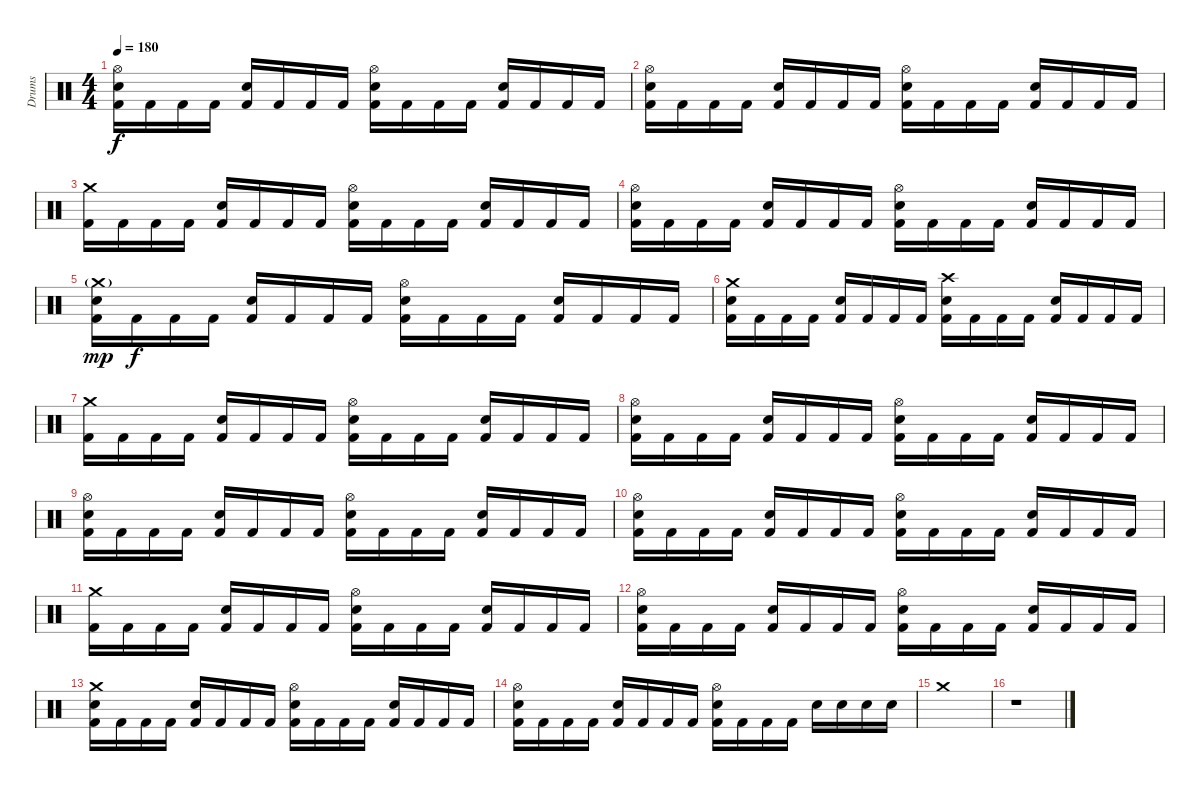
\track ("Drums" "Drums") {instrument percussion}
\staff {score}
\articulation defaults
\ts (4 4)
\tempo 180
\clef neutral
\ks c
("Hi-Hat (open)" "Electric Snare (hit)" "Kick (hit) 2").16{dy f} "Kick (hit) 2".16 "Kick (hit) 2".16 "Kick (hit) 2".16 ("Electric Snare (hit)" "Kick (hit) 2").16 "Kick (hit) 2".16 "Kick (hit) 2".16 "Kick (hit) 2".16 ("Hi-Hat (open)" "Electric Snare (hit)" "Kick (hit) 2").16 "Kick (hit) 2".16 "Kick (hit) 2".16 "Kick (hit) 2".16 ("Electric Snare (hit)" "Kick (hit) 2").16 "Kick (hit) 2".16 "Kick (hit) 2".16 "Kick (hit) 2".16 |
("Hi-Hat (open)" "Electric Snare (hit)" "Kick (hit) 2").16 "Kick (hit) 2".16 "Kick (hit) 2".16 "Kick (hit) 2".16 ("Electric Snare (hit)" "Kick (hit) 2").16 "Kick (hit) 2".16 "Kick (hit) 2".16 "Kick (hit) 2".16 ("Hi-Hat (open)" "Electric Snare (hit)" "Kick (hit) 2").16 "Kick (hit) 2".16 "Kick (hit) 2".16 "Kick (hit) 2".16 ("Electric Snare (hit)" "Kick (hit) 2").16 "Kick (hit) 2".16 "Kick (hit) 2".16 "Kick (hit) 2".16 |
("Crash medium (hit)" "Kick (hit) 2").16 "Kick (hit) 2".16 "Kick (hit) 2".16 "Kick (hit) 2".16 ("Electric Snare (hit)" "Kick (hit) 2").16 "Kick (hit) 2".16 "Kick (hit) 2".16 "Kick (hit) 2".16 ("Hi-Hat (open)" "Electric Snare (hit)" "Kick (hit) 2").16 "Kick (hit) 2".16 "Kick (hit) 2".16 "Kick (hit) 2".16 ("Electric Snare (hit)" "Kick (hit) 2").16 "Kick (hit) 2".16 "Kick (hit) 2".16 "Kick (hit) 2".16 |
("Hi-Hat (open)" "Electric Snare (hit)" "Kick (hit) 2").16 "Kick (hit) 2".16 "Kick (hit) 2".16 "Kick (hit) 2".16 ("Electric Snare (hit)" "Kick (hit) 2").16 "Kick (hit) 2".16 "Kick (hit) 2".16 "Kick (hit) 2".16 ("Hi-Hat (open)" "Electric Snare (hit)" "Kick (hit) 2").16 "Kick (hit) 2".16 "Kick (hit) 2".16 "Kick (hit) 2".16 ("Electric Snare (hit)" "Kick (hit) 2").16 "Kick (hit) 2".16 "Kick (hit) 2".16 "Kick (hit) 2".16 |
("Crash medium (hit)"{g} "Electric Snare (hit)" "Kick (hit) 2").16{dy mp} "Kick (hit) 2".16{dy f} "Kick (hit) 2".16 "Kick (hit) 2".16 ("Electric Snare (hit)" "Kick (hit) 2").16 "Kick (hit) 2".16 "Kick (hit) 2".16 "Kick (hit) 2".16 ("Hi-Hat (open)" "Electric Snare (hit)" "Kick (hit) 2").16 "Kick (hit) 2".16 "Kick (hit) 2".16 "Kick (hit) 2".16 ("Electric Snare (hit)" "Kick (hit) 2").16 "Kick (hit) 2".16 "Kick (hit) 2".16 "Kick (hit) 2".16 |
("Crash medium (hit)" "Electric Snare (hit)" "Kick (hit) 2").16 "Kick (hit) 2".16 "Kick (hit) 2".16 "Kick (hit) 2".16 ("Electric Snare (hit)" "Kick (hit) 2").16 "Kick (hit) 2".16 "Kick (hit) 2".16 "Kick (hit) 2".16 ("Crash high (hit)" "Electric Snare (hit)" "Kick (hit) 2").16 "Kick (hit) 2".16 "Kick (hit) 2".16 "Kick (hit) 2".16 ("Electric Snare (hit)" "Kick (hit) 2").16 "Kick (hit) 2".16 "Kick (hit) 2".16 "Kick (hit) 2".16 |
("Crash medium (hit)" "Kick (hit) 2").16 "Kick (hit) 2".16 "Kick (hit) 2".16 "Kick (hit) 2".16 ("Electric Snare (hit)" "Kick (hit) 2").16 "Kick (hit) 2".16 "Kick (hit) 2".16 "Kick (hit) 2".16 ("Hi-Hat (open)" "Electric Snare (hit)" "Kick (hit) 2").16 "Kick (hit) 2".16 "Kick (hit) 2".16 "Kick (hit) 2".16 ("Electric Snare (hit)" "Kick (hit) 2").16 "Kick (hit) 2".16 "Kick (hit) 2".16 "Kick (hit) 2".16 |
("Hi-Hat (open)" "Electric Snare (hit)" "Kick (hit) 2").16 "Kick (hit) 2".16 "Kick (hit) 2".16 "Kick (hit) 2".16 ("Electric Snare (hit)" "Kick (hit) 2").16 "Kick (hit) 2".16 "Kick (hit) 2".16 "Kick (hit) 2".16 ("Hi-Hat (open)" "Electric Snare (hit)" "Kick (hit) 2").16 "Kick (hit) 2".16 "Kick (hit) 2".16 "Kick (hit) 2".16 ("Electric Snare (hit)" "Kick (hit) 2").16 "Kick (hit) 2".16 "Kick (hit) 2".16 "Kick (hit) 2".16 |
("Hi-Hat (open)" "Electric Snare (hit)" "Kick (hit) 2").16 "Kick (hit) 2".16 "Kick (hit) 2".16 "Kick (hit) 2".16 ("Electric Snare (hit)" "Kick (hit) 2").16 "Kick (hit) 2".16 "Kick (hit) 2".16 "Kick (hit) 2".16 ("Hi-Hat (open)" "Electric Snare (hit)" "Kick (hit) 2").16 "Kick (hit) 2".16 "Kick (hit) 2".16 "Kick (hit) 2".16 ("Electric Snare (hit)" "Kick (hit) 2").16 "Kick (hit) 2".16 "Kick (hit) 2".16 "Kick (hit) 2".16 |
("Hi-Hat (open)" "Electric Snare (hit)" "Kick (hit) 2").16 "Kick (hit) 2".16 "Kick (hit) 2".16 "Kick (hit) 2".16 ("Electric Snare (hit)" "Kick (hit) 2").16 "Kick (hit) 2".16 "Kick (hit) 2".16 "Kick (hit) 2".16 ("Hi-Hat (open)" "Electric Snare (hit)" "Kick (hit) 2").16 "Kick (hit) 2".16 "Kick (hit) 2".16 "Kick (hit) 2".16 ("Electric Snare (hit)" "Kick (hit) 2").16 "Kick (hit) 2".16 "Kick (hit) 2".16 "Kick (hit) 2".16 |
("Crash medium (hit)" "Kick (hit) 2").16 "Kick (hit) 2".16 "Kick (hit) 2".16 "Kick (hit) 2".16 ("Electric Snare (hit)" "Kick (hit) 2").16 "Kick (hit) 2".16 "Kick (hit) 2".16 "Kick (hit) 2".16 ("Hi-Hat (open)" "Electric Snare (hit)" "Kick (hit) 2").16 "Kick (hit) 2".16 "Kick (hit) 2".16 "Kick (hit) 2".16 ("Electric Snare (hit)" "Kick (hit) 2").16 "Kick (hit) 2".16 "Kick (hit) 2".16 "Kick (hit) 2".16 |
("Hi-Hat (open)" "Electric Snare (hit)" "Kick (hit) 2").16 "Kick (hit) 2".16 "Kick (hit) 2".16 "Kick (hit) 2".16 ("Electric Snare (hit)" "Kick (hit) 2").16 "Kick (hit) 2".16 "Kick (hit) 2".16 "Kick (hit) 2".16 ("Hi-Hat (open)" "Electric Snare (hit)" "Kick (hit) 2").16 "Kick (hit) 2".16 "Kick (hit) 2".16 "Kick (hit) 2".16 ("Electric Snare (hit)" "Kick (hit) 2").16 "Kick (hit) 2".16 "Kick (hit) 2".16 "Kick (hit) 2".16 |
("Crash medium (hit)" "Electric Snare (hit)" "Kick (hit) 2").16 "Kick (hit) 2".16 "Kick (hit) 2".16 "Kick (hit) 2".16 ("Electric Snare (hit)" "Kick (hit) 2").16 "Kick (hit) 2".16 "Kick (hit) 2".16 "Kick (hit) 2".16 ("Hi-Hat (open)" "Electric Snare (hit)" "Kick (hit) 2").16 "Kick (hit) 2".16 "Kick (hit) 2".16 "Kick (hit) 2".16 ("Electric Snare (hit)" "Kick (hit) 2").16 "Kick (hit) 2".16 "Kick (hit) 2".16 "Kick (hit) 2".16 |
("Hi-Hat (open)" "Electric Snare (hit)" "Kick (hit) 2").16 "Kick (hit) 2".16 "Kick (hit) 2".16 "Kick (hit) 2".16 ("Electric Snare (hit)" "Kick (hit) 2").16 "Kick (hit) 2".16 "Kick (hit) 2".16 "Kick (hit) 2".16 ("Hi-Hat (open)" "Electric Snare (hit)" "Kick (hit) 2").16 "Kick (hit) 2".16 "Kick (hit) 2".16 "Kick (hit) 2".16 "Electric Snare (hit)".16 "Electric Snare (hit)".16 "Electric Snare (hit)".16 "Electric Snare (hit)".16 |
"Crash medium (hit)".1 |
r.1
